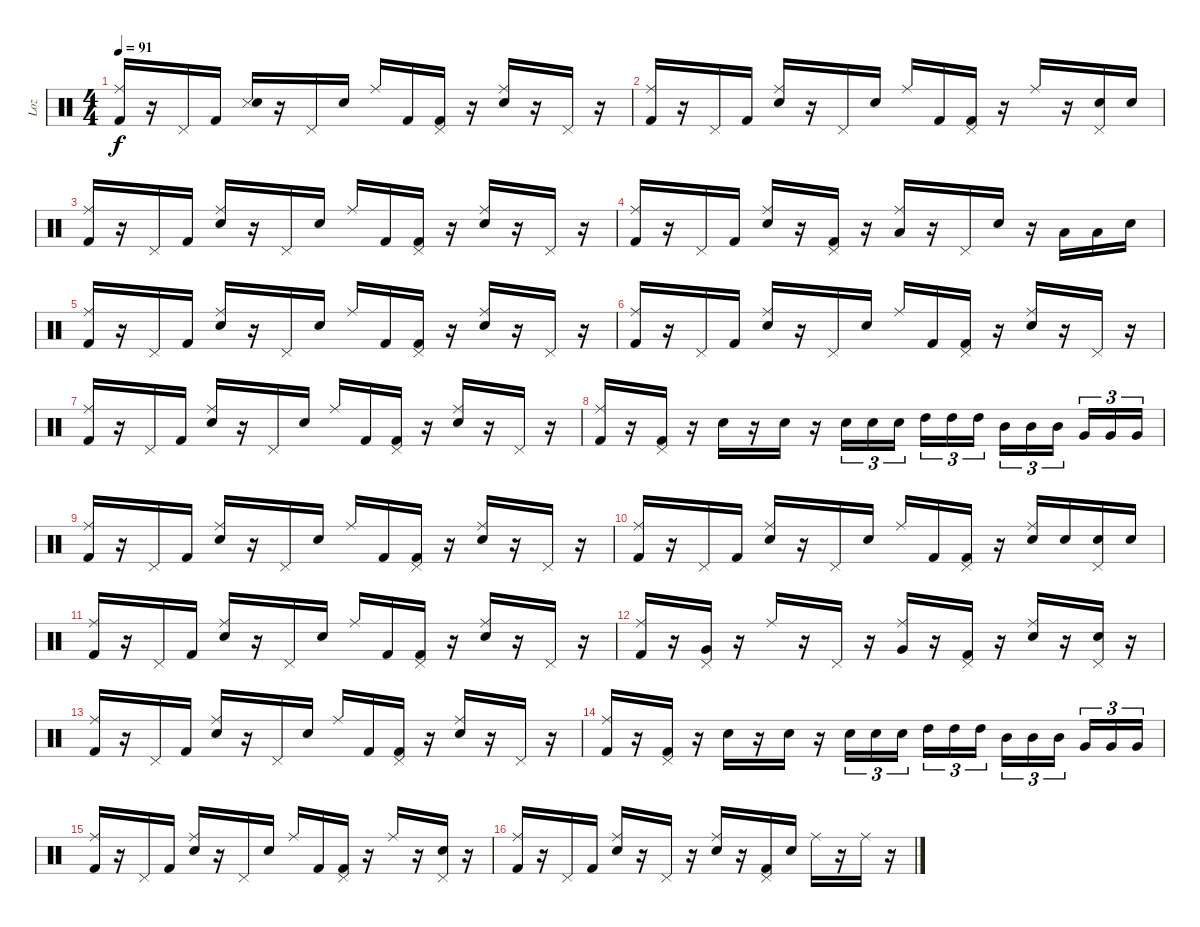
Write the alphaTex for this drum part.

\track ("Loz" "Loz") {instrument percussion}
\staff {score}
\articulation defaults
\ts (4 4)
\tempo 91
\clef neutral
\ks c
("Ride (middle)" "Kick (hit) 2").16{dy f} r.16 "Pedal Hi-Hat (hit)".16 "Kick (hit) 2".16 ("Snare (side stick) 3" "Electric Snare (hit)").16 r.16 "Pedal Hi-Hat (hit)".16 "Electric Snare (hit)".16 "Ride (middle)".16 "Kick (hit) 2".16 ("Pedal Hi-Hat (hit)" "Kick (hit) 2").16 r.16 ("Ride (middle)" "Electric Snare (hit)").16 r.16 "Pedal Hi-Hat (hit)".16 r.16 |
("Ride (middle)" "Kick (hit) 2").16 r.16 "Pedal Hi-Hat (hit)".16 "Kick (hit) 2".16 ("Ride (middle)" "Electric Snare (hit)").16 r.16 "Pedal Hi-Hat (hit)".16 "Electric Snare (hit)".16 "Ride (middle)".16 "Kick (hit) 2".16 ("Pedal Hi-Hat (hit)" "Kick (hit) 2").16 r.16 "Ride (middle)".16 r.16 ("Pedal Hi-Hat (hit)" "Electric Snare (hit)").16 "Electric Snare (hit)".16 |
("Ride (middle)" "Kick (hit) 2").16 r.16 "Pedal Hi-Hat (hit)".16 "Kick (hit) 2".16 ("Ride (middle)" "Electric Snare (hit)").16 r.16 "Pedal Hi-Hat (hit)".16 "Electric Snare (hit)".16 "Ride (middle)".16 "Kick (hit) 2".16 ("Pedal Hi-Hat (hit)" "Kick (hit) 2").16 r.16 ("Ride (middle)" "Electric Snare (hit)").16 r.16 "Pedal Hi-Hat (hit)".16 r.16 |
("Ride (middle)" "Kick (hit) 2").16 r.16 "Pedal Hi-Hat (hit)".16 "Kick (hit) 2".16 ("Ride (middle)" "Electric Snare (hit)").16 r.16 ("Pedal Hi-Hat (hit)" "Kick (hit) 2").16 r.16 ("Ride (middle)" "Low Tom (hit)").16 r.16 "Pedal Hi-Hat (hit)".16 "Electric Snare (hit)".16 r.16 "Low Floor Tom (hit)".16 "Low Floor Tom (hit)".16 "Electric Snare (hit)".16 |
("Ride (middle)" "Kick (hit) 2").16 r.16 "Pedal Hi-Hat (hit)".16 "Kick (hit) 2".16 ("Ride (middle)" "Electric Snare (hit)").16 r.16 "Pedal Hi-Hat (hit)".16 "Electric Snare (hit)".16 "Ride (middle)".16 "Kick (hit) 2".16 ("Pedal Hi-Hat (hit)" "Kick (hit) 2").16 r.16 ("Ride (middle)" "Electric Snare (hit)").16 r.16 "Pedal Hi-Hat (hit)".16 r.16 |
("Ride (middle)" "Kick (hit) 2").16 r.16 "Pedal Hi-Hat (hit)".16 "Kick (hit) 2".16 ("Ride (middle)" "Electric Snare (hit)").16 r.16 "Pedal Hi-Hat (hit)".16 "Electric Snare (hit)".16 "Ride (middle)".16 "Kick (hit) 2".16 ("Pedal Hi-Hat (hit)" "Kick (hit) 2").16 r.16 ("Ride (middle)" "Electric Snare (hit)").16 r.16 "Pedal Hi-Hat (hit)".16 r.16 |
("Ride (middle)" "Kick (hit) 2").16 r.16 "Pedal Hi-Hat (hit)".16 "Kick (hit) 2".16 ("Ride (middle)" "Electric Snare (hit)").16 r.16 "Pedal Hi-Hat (hit)".16 "Electric Snare (hit)".16 "Ride (middle)".16 "Kick (hit) 2".16 ("Pedal Hi-Hat (hit)" "Kick (hit) 2").16 r.16 ("Ride (middle)" "Electric Snare (hit)").16 r.16 "Pedal Hi-Hat (hit)".16 r.16 |
("Ride (middle)" "Kick (hit) 2").16 r.16 ("Pedal Hi-Hat (hit)" "Kick (hit) 2").16 r.16 "Electric Snare (hit)".16 r.16 "Electric Snare (hit)".16 r.16 "Electric Snare (hit)".16{tu (3 2)} "Electric Snare (hit)".16{tu (3 2)} "Electric Snare (hit)".16{tu (3 2)} "High Tom (hit)".16{tu (3 2)} "High Tom (hit)".16{tu (3 2)} "High Tom (hit)".16{tu (3 2)} "Mid Tom (hit)".16{tu (3 2)} "Mid Tom (hit)".16{tu (3 2)} "Mid Tom (hit)".16{tu (3 2)} "Very Low Tom (hit)".16{tu (3 2)} "Very Low Tom (hit)".16{tu (3 2)} "Very Low Tom (hit)".16{tu (3 2)} |
("Ride (middle)" "Kick (hit) 2").16 r.16 "Pedal Hi-Hat (hit)".16 "Kick (hit) 2".16 ("Ride (middle)" "Electric Snare (hit)").16 r.16 "Pedal Hi-Hat (hit)".16 "Electric Snare (hit)".16 "Ride (middle)".16 "Kick (hit) 2".16 ("Pedal Hi-Hat (hit)" "Kick (hit) 2").16 r.16 ("Ride (middle)" "Electric Snare (hit)").16 r.16 "Pedal Hi-Hat (hit)".16 r.16 |
("Ride (middle)" "Kick (hit) 2").16 r.16 "Pedal Hi-Hat (hit)".16 "Kick (hit) 2".16 ("Ride (middle)" "Electric Snare (hit)").16 r.16 "Pedal Hi-Hat (hit)".16 "Electric Snare (hit)".16 "Ride (middle)".16 "Kick (hit) 2".16 ("Pedal Hi-Hat (hit)" "Kick (hit) 2").16 r.16 ("Ride (middle)" "Electric Snare (hit)").16 "Electric Snare (hit)".16 ("Pedal Hi-Hat (hit)" "Electric Snare (hit)").16 "Electric Snare (hit)".16 |
("Ride (middle)" "Kick (hit) 2").16 r.16 "Pedal Hi-Hat (hit)".16 "Kick (hit) 2".16 ("Ride (middle)" "Electric Snare (hit)").16 r.16 "Pedal Hi-Hat (hit)".16 "Electric Snare (hit)".16 "Ride (middle)".16 "Kick (hit) 2".16 ("Pedal Hi-Hat (hit)" "Kick (hit) 2").16 r.16 ("Ride (middle)" "Electric Snare (hit)").16 r.16 "Pedal Hi-Hat (hit)".16 r.16 |
("Ride (middle)" "Kick (hit) 2").16 r.16 ("Pedal Hi-Hat (hit)" "Very Low Tom (hit)").16 r.16 "Ride (middle)".16 r.16 "Pedal Hi-Hat (hit)".16 r.16 ("Ride (middle)" "Very Low Tom (hit)").16 r.16 ("Pedal Hi-Hat (hit)" "Kick (hit) 2").16 r.16 ("Ride (middle)" "Electric Snare (hit)").16 r.16 ("Pedal Hi-Hat (hit)" "Electric Snare (hit)").16 r.16 |
("Ride (middle)" "Kick (hit) 2").16 r.16 "Pedal Hi-Hat (hit)".16 "Kick (hit) 2".16 ("Ride (middle)" "Electric Snare (hit)").16 r.16 "Pedal Hi-Hat (hit)".16 "Electric Snare (hit)".16 "Ride (middle)".16 "Kick (hit) 2".16 ("Pedal Hi-Hat (hit)" "Kick (hit) 2").16 r.16 ("Ride (middle)" "Electric Snare (hit)").16 r.16 "Pedal Hi-Hat (hit)".16 r.16 |
("Ride (middle)" "Kick (hit) 2").16 r.16 ("Pedal Hi-Hat (hit)" "Kick (hit) 2").16 r.16 "Electric Snare (hit)".16 r.16 "Electric Snare (hit)".16 r.16 "Electric Snare (hit)".16{tu (3 2)} "Electric Snare (hit)".16{tu (3 2)} "Electric Snare (hit)".16{tu (3 2)} "High Tom (hit)".16{tu (3 2)} "High Tom (hit)".16{tu (3 2)} "High Tom (hit)".16{tu (3 2)} "Mid Tom (hit)".16{tu (3 2)} "Mid Tom (hit)".16{tu (3 2)} "Mid Tom (hit)".16{tu (3 2)} "Very Low Tom (hit)".16{tu (3 2)} "Very Low Tom (hit)".16{tu (3 2)} "Very Low Tom (hit)".16{tu (3 2)} |
("Ride (middle)" "Kick (hit) 2").16 r.16 "Pedal Hi-Hat (hit)".16 "Kick (hit) 2".16 ("Ride (middle)" "Electric Snare (hit)").16 r.16 "Pedal Hi-Hat (hit)".16 "Electric Snare (hit)".16 "Ride (middle)".16 "Kick (hit) 2".16 ("Pedal Hi-Hat (hit)" "Kick (hit) 2").16 r.16 "Ride (middle)".16 r.16 ("Pedal Hi-Hat (hit)" "Electric Snare (hit)").16 r.16 |
("Ride (middle)" "Kick (hit) 2").16 r.16 "Pedal Hi-Hat (hit)".16 "Kick (hit) 2".16 ("Ride (middle)" "Electric Snare (hit)").16 r.16 "Pedal Hi-Hat (hit)".16 r.16 ("Ride (middle)" "Electric Snare (hit)").16 r.16 ("Pedal Hi-Hat (hit)" "Kick (hit) 2").16 "Electric Snare (hit)".16 "Ride (middle)".16 r.16 "Ride (middle)".16 r.16
